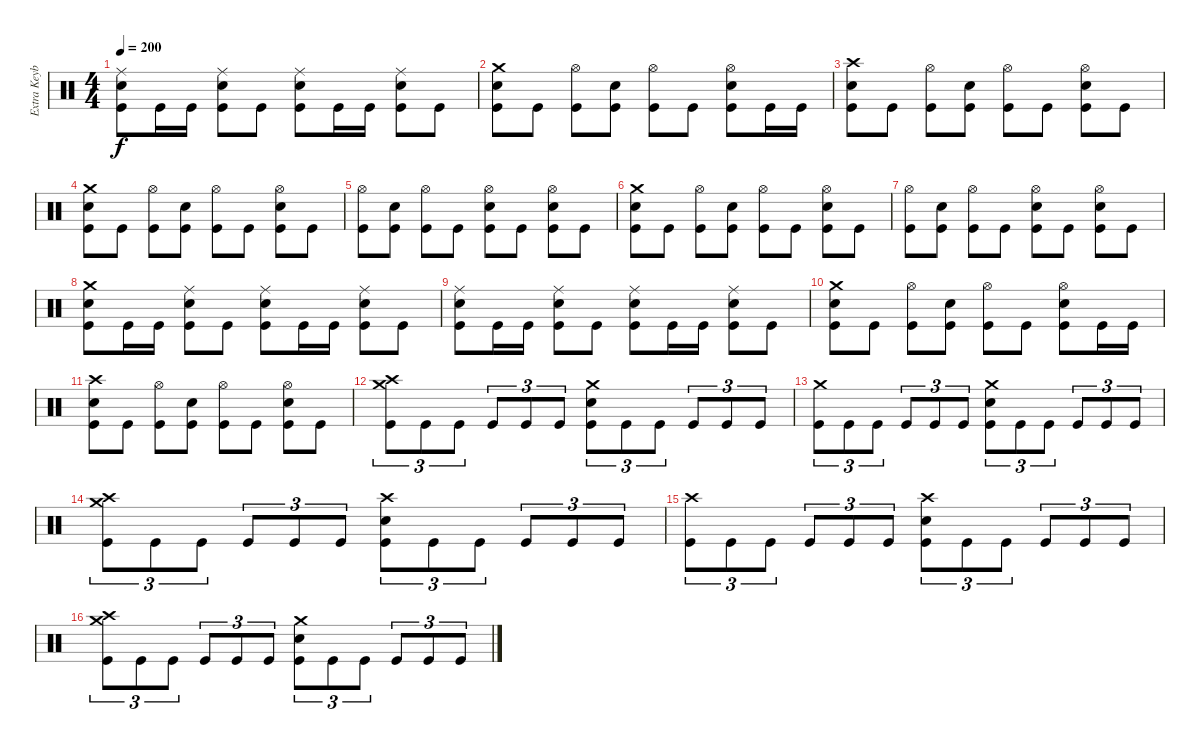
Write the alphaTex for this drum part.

\track ("Extra Keyboard" "Extra Keyb") {instrument percussion}
\staff {score}
\articulation defaults
\ts (4 4)
\tempo 200
\clef neutral
\ks c
("Ride (middle)" "Electric Snare (hit)" "Kick (hit)").8{dy f} "Kick (hit)".16 "Kick (hit)".16 ("Ride (middle)" "Electric Snare (hit)" "Kick (hit)").8 "Kick (hit)".8 ("Ride (middle)" "Electric Snare (hit)" "Kick (hit)").8 "Kick (hit)".16 "Kick (hit)".16 ("Ride (middle)" "Electric Snare (hit)" "Kick (hit)").8 "Kick (hit)".8 |
("Crash medium (hit)" "Electric Snare (hit)" "Kick (hit)").8 "Kick (hit)".8 ("Hi-Hat (open)" "Kick (hit)").8 ("Electric Snare (hit)" "Kick (hit)").8 ("Hi-Hat (open)" "Kick (hit)").8 "Kick (hit)".8 ("Hi-Hat (open)" "Electric Snare (hit)" "Kick (hit)").8 "Kick (hit)".16 "Kick (hit)".16 |
("Crash high (hit)" "Electric Snare (hit)" "Kick (hit)").8 "Kick (hit)".8 ("Hi-Hat (open)" "Kick (hit)").8 ("Electric Snare (hit)" "Kick (hit)").8 ("Hi-Hat (open)" "Kick (hit)").8 "Kick (hit)".8 ("Hi-Hat (open)" "Electric Snare (hit)" "Kick (hit)").8 "Kick (hit)".8 |
("Crash medium (hit)" "Electric Snare (hit)" "Kick (hit)").8 "Kick (hit)".8 ("Hi-Hat (open)" "Kick (hit)").8 ("Electric Snare (hit)" "Kick (hit)").8 ("Hi-Hat (open)" "Kick (hit)").8 "Kick (hit)".8 ("Hi-Hat (open)" "Electric Snare (hit)" "Kick (hit)").8 "Kick (hit)".8 |
("Hi-Hat (open)" "Kick (hit)").8 ("Electric Snare (hit)" "Kick (hit)").8 ("Hi-Hat (open)" "Kick (hit)").8 "Kick (hit)".8 ("Hi-Hat (open)" "Electric Snare (hit)" "Kick (hit)").8 "Kick (hit)".8 ("Hi-Hat (open)" "Electric Snare (hit)" "Kick (hit)").8 "Kick (hit)".8 |
("Crash medium (hit)" "Electric Snare (hit)" "Kick (hit)").8 "Kick (hit)".8 ("Hi-Hat (open)" "Kick (hit)").8 ("Electric Snare (hit)" "Kick (hit)").8 ("Hi-Hat (open)" "Kick (hit)").8 "Kick (hit)".8 ("Hi-Hat (open)" "Electric Snare (hit)" "Kick (hit)").8 "Kick (hit)".8 |
("Hi-Hat (open)" "Kick (hit)").8 ("Electric Snare (hit)" "Kick (hit)").8 ("Hi-Hat (open)" "Kick (hit)").8 "Kick (hit)".8 ("Hi-Hat (open)" "Electric Snare (hit)" "Kick (hit)").8 "Kick (hit)".8 ("Hi-Hat (open)" "Electric Snare (hit)" "Kick (hit)").8 "Kick (hit)".8 |
("Crash medium (hit)" "Electric Snare (hit)" "Kick (hit)").8 "Kick (hit)".16 "Kick (hit)".16 ("Ride (middle)" "Electric Snare (hit)" "Kick (hit)").8 "Kick (hit)".8 ("Ride (middle)" "Electric Snare (hit)" "Kick (hit)").8 "Kick (hit)".16 "Kick (hit)".16 ("Ride (middle)" "Electric Snare (hit)" "Kick (hit)").8 "Kick (hit)".8 |
("Ride (middle)" "Electric Snare (hit)" "Kick (hit)").8 "Kick (hit)".16 "Kick (hit)".16 ("Ride (middle)" "Electric Snare (hit)" "Kick (hit)").8 "Kick (hit)".8 ("Ride (middle)" "Electric Snare (hit)" "Kick (hit)").8 "Kick (hit)".16 "Kick (hit)".16 ("Ride (middle)" "Electric Snare (hit)" "Kick (hit)").8 "Kick (hit)".8 |
("Crash medium (hit)" "Electric Snare (hit)" "Kick (hit)").8 "Kick (hit)".8 ("Hi-Hat (open)" "Kick (hit)").8 ("Electric Snare (hit)" "Kick (hit)").8 ("Hi-Hat (open)" "Kick (hit)").8 "Kick (hit)".8 ("Hi-Hat (open)" "Electric Snare (hit)" "Kick (hit)").8 "Kick (hit)".16 "Kick (hit)".16 |
("Crash high (hit)" "Electric Snare (hit)" "Kick (hit)").8 "Kick (hit)".8 ("Hi-Hat (open)" "Kick (hit)").8 ("Electric Snare (hit)" "Kick (hit)").8 ("Hi-Hat (open)" "Kick (hit)").8 "Kick (hit)".8 ("Hi-Hat (open)" "Electric Snare (hit)" "Kick (hit)").8 "Kick (hit)".8 |
("Crash high (hit)" "Crash medium (hit)" "Kick (hit)").8{tu (3 2)} "Kick (hit)".8{tu (3 2)} "Kick (hit)".8{tu (3 2)} "Kick (hit)".8{tu (3 2)} "Kick (hit)".8{tu (3 2)} "Kick (hit)".8{tu (3 2)} ("Crash medium (hit)" "Electric Snare (hit)" "Kick (hit)").8{tu (3 2)} "Kick (hit)".8{tu (3 2)} "Kick (hit)".8{tu (3 2)} "Kick (hit)".8{tu (3 2)} "Kick (hit)".8{tu (3 2)} "Kick (hit)".8{tu (3 2)} |
("Crash medium (hit)" "Kick (hit)").8{tu (3 2)} "Kick (hit)".8{tu (3 2)} "Kick (hit)".8{tu (3 2)} "Kick (hit)".8{tu (3 2)} "Kick (hit)".8{tu (3 2)} "Kick (hit)".8{tu (3 2)} ("Crash medium (hit)" "Electric Snare (hit)" "Kick (hit)").8{tu (3 2)} "Kick (hit)".8{tu (3 2)} "Kick (hit)".8{tu (3 2)} "Kick (hit)".8{tu (3 2)} "Kick (hit)".8{tu (3 2)} "Kick (hit)".8{tu (3 2)} |
("Crash high (hit)" "Crash medium (hit)" "Kick (hit)").8{tu (3 2)} "Kick (hit)".8{tu (3 2)} "Kick (hit)".8{tu (3 2)} "Kick (hit)".8{tu (3 2)} "Kick (hit)".8{tu (3 2)} "Kick (hit)".8{tu (3 2)} ("Crash high (hit)" "Electric Snare (hit)" "Kick (hit)").8{tu (3 2)} "Kick (hit)".8{tu (3 2)} "Kick (hit)".8{tu (3 2)} "Kick (hit)".8{tu (3 2)} "Kick (hit)".8{tu (3 2)} "Kick (hit)".8{tu (3 2)} |
("Crash high (hit)" "Kick (hit)").8{tu (3 2)} "Kick (hit)".8{tu (3 2)} "Kick (hit)".8{tu (3 2)} "Kick (hit)".8{tu (3 2)} "Kick (hit)".8{tu (3 2)} "Kick (hit)".8{tu (3 2)} ("Crash high (hit)" "Electric Snare (hit)" "Kick (hit)").8{tu (3 2)} "Kick (hit)".8{tu (3 2)} "Kick (hit)".8{tu (3 2)} "Kick (hit)".8{tu (3 2)} "Kick (hit)".8{tu (3 2)} "Kick (hit)".8{tu (3 2)} |
("Crash high (hit)" "Crash medium (hit)" "Kick (hit)").8{tu (3 2)} "Kick (hit)".8{tu (3 2)} "Kick (hit)".8{tu (3 2)} "Kick (hit)".8{tu (3 2)} "Kick (hit)".8{tu (3 2)} "Kick (hit)".8{tu (3 2)} ("Crash medium (hit)" "Electric Snare (hit)" "Kick (hit)").8{tu (3 2)} "Kick (hit)".8{tu (3 2)} "Kick (hit)".8{tu (3 2)} "Kick (hit)".8{tu (3 2)} "Kick (hit)".8{tu (3 2)} "Kick (hit)".8{tu (3 2)}
